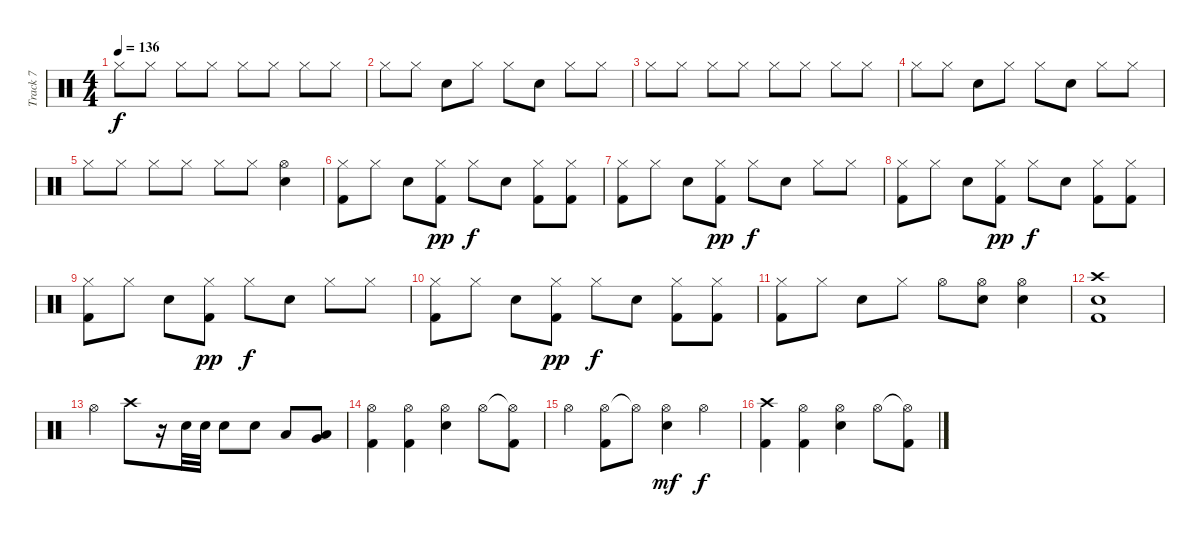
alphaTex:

\track ("Track 7" "Track 7") {instrument percussion}
\staff {score}
\articulation defaults
\ts (4 4)
\tempo 136
\clef neutral
\ks c "Hi-Hat (closed)".8{dy f} "Hi-Hat (closed)".8 "Hi-Hat (closed)".8 "Hi-Hat (closed)".8 "Hi-Hat (closed)".8 "Hi-Hat (closed)".8 "Hi-Hat (closed)".8 "Hi-Hat (closed)".8
|
"Hi-Hat (closed)".8 "Hi-Hat (closed)".8 "Electric Snare (hit)".8 "Hi-Hat (closed)".8 "Hi-Hat (closed)".8 "Electric Snare (hit)".8 "Hi-Hat (closed)".8 "Hi-Hat (closed)".8 |
"Hi-Hat (closed)".8 "Hi-Hat (closed)".8 "Hi-Hat (closed)".8 "Hi-Hat (closed)".8 "Hi-Hat (closed)".8 "Hi-Hat (closed)".8 "Hi-Hat (closed)".8 "Hi-Hat (closed)".8 |
"Hi-Hat (closed)".8 "Hi-Hat (closed)".8 "Electric Snare (hit)".8 "Hi-Hat (closed)".8 "Hi-Hat (closed)".8 "Electric Snare (hit)".8 "Hi-Hat (closed)".8 "Hi-Hat (closed)".8 |
"Hi-Hat (closed)".8 "Hi-Hat (closed)".8 "Hi-Hat (closed)".8 "Hi-Hat (closed)".8 "Hi-Hat (closed)".8 "Hi-Hat (closed)".8 ("Hi-Hat (open)" "Electric Snare (hit)").4 |
("Hi-Hat (closed)" "Kick (hit) 2").8 "Hi-Hat (closed)".8 "Electric Snare (hit)".8 ("Hi-Hat (closed)" "Kick (hit) 2").8{dy pp} "Hi-Hat (closed)".8{dy f} "Electric Snare (hit)".8 ("Hi-Hat (closed)" "Kick (hit) 2").8 ("Hi-Hat (closed)" "Kick (hit) 2").8 |
("Hi-Hat (closed)" "Kick (hit) 2").8 "Hi-Hat (closed)".8 "Electric Snare (hit)".8 ("Hi-Hat (closed)" "Kick (hit) 2").8{dy pp} "Hi-Hat (closed)".8{dy f} "Electric Snare (hit)".8 "Hi-Hat (closed)".8 "Hi-Hat (closed)".8 |
("Hi-Hat (closed)" "Kick (hit) 2").8 "Hi-Hat (closed)".8 "Electric Snare (hit)".8 ("Hi-Hat (closed)" "Kick (hit) 2").8{dy pp} "Hi-Hat (closed)".8{dy f} "Electric Snare (hit)".8 ("Hi-Hat (closed)" "Kick (hit) 2").8 ("Hi-Hat (closed)" "Kick (hit) 2").8 |
("Hi-Hat (closed)" "Kick (hit) 2").8 "Hi-Hat (closed)".8 "Electric Snare (hit)".8 ("Hi-Hat (closed)" "Kick (hit) 2").8{dy pp} "Hi-Hat (closed)".8{dy f} "Electric Snare (hit)".8 "Hi-Hat (closed)".8 "Hi-Hat (closed)".8 |
("Hi-Hat (closed)" "Kick (hit) 2").8 "Hi-Hat (closed)".8 "Electric Snare (hit)".8 ("Hi-Hat (closed)" "Kick (hit) 2").8{dy pp} "Hi-Hat (closed)".8{dy f} "Electric Snare (hit)".8 ("Hi-Hat (closed)" "Kick (hit) 2").8 ("Hi-Hat (closed)" "Kick (hit) 2").8 |
("Hi-Hat (closed)" "Kick (hit) 2").8 "Hi-Hat (closed)".8 "Electric Snare (hit)".8 "Hi-Hat (closed)".8 "Hi-Hat (open)".8 ("Hi-Hat (open)" "Electric Snare (hit)").8 ("Hi-Hat (open)" "Electric Snare (hit)").4 |
("Crash high (hit)" "Electric Snare (hit)" "Kick (hit) 2").1 |
"Hi-Hat (open)".4 "Crash high (hit)".8 r.16 "Electric Snare (hit)".32 "Electric Snare (hit)".32 "Electric Snare (hit)".8 "Electric Snare (hit)".8 "Low Tom (hit)".8 ("Low Tom (hit)" "Very Low Tom (hit)").8 |
("Hi-Hat (open)" "Kick (hit) 2").4 ("Hi-Hat (open)" "Kick (hit) 2").4 ("Hi-Hat (open)" "Electric Snare (hit)").4 "Hi-Hat (open)".8 ("Hi-Hat (open)"{t} "Kick (hit) 2").8 |
"Hi-Hat (open)".4 ("Hi-Hat (open)" "Kick (hit) 2").8 "Hi-Hat (open)"{t}.8 ("Hi-Hat (open)" "Electric Snare (hit)").4{dy mf} "Hi-Hat (open)".4{dy f} |
("Crash high (hit)" "Kick (hit) 2").4 ("Hi-Hat (open)" "Kick (hit) 2").4 ("Hi-Hat (open)" "Electric Snare (hit)").4 "Hi-Hat (open)".8 ("Hi-Hat (open)"{t} "Kick (hit) 2").8
